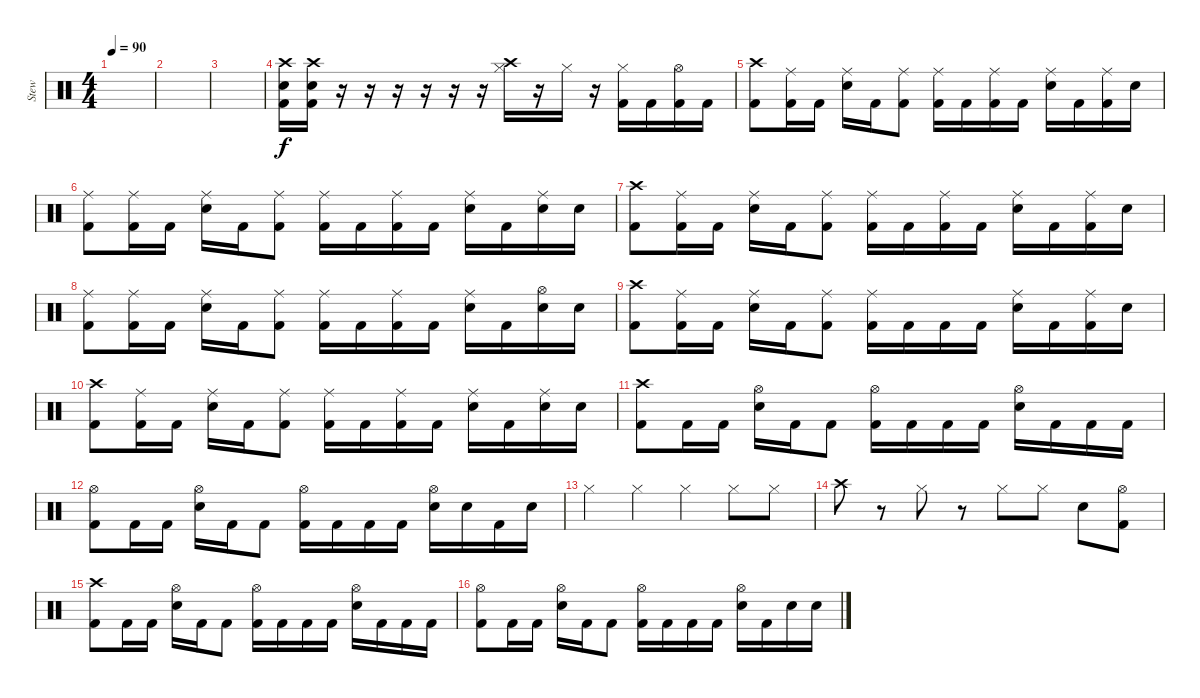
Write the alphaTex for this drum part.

\track ("Stew" "Stew") {instrument percussion}
\staff {score}
\articulation defaults
\ts (4 4)
\tempo 90
\clef neutral
\ks c
|
|
|
("Crash high (hit)"{x} "Snare (hit)"{x} "Kick (hit) 2"{x}).16 ("Crash high (hit)"{x} "Snare (hit)"{x} "Kick (hit) 2"{x}).16 r.16 r.16 r.16 r.16 r.16 r.16 ("Crash high (hit)" "Hi-Hat (closed)").16 r.16 "Hi-Hat (closed)".16 r.16 ("Hi-Hat (closed)" "Kick (hit) 2"{tr (36 32)}).16 "Kick (hit) 2".16 ("Hi-Hat (open)" "Kick (hit) 2").16 "Kick (hit) 2".16 |
("Crash high (hit)" "Kick (hit) 2").8 ("Ride (middle)" "Kick (hit) 2").16 "Kick (hit) 2".16 ("Ride (middle)" "Snare (hit) 2").16 "Kick (hit) 2".16 ("Ride (middle)" "Kick (hit) 2").8 ("Ride (middle)" "Kick (hit) 2"{x}).16 "Kick (hit) 2".16 ("Ride (middle)" "Kick (hit) 2").16 "Kick (hit) 2".16 ("Ride (middle)" "Snare (hit) 2").16 "Kick (hit) 2".16 ("Ride (middle)" "Kick (hit) 2").16 "Snare (hit) 2".16 |
("Ride (middle)" "Kick (hit) 2").8 ("Ride (middle)" "Kick (hit) 2").16 "Kick (hit) 2".16 ("Ride (middle)" "Snare (hit) 2").16 "Kick (hit) 2".16 ("Ride (middle)" "Kick (hit) 2").8 ("Ride (middle)" "Kick (hit) 2"{x}).16 "Kick (hit) 2".16 ("Ride (middle)" "Kick (hit) 2").16 "Kick (hit) 2".16 ("Ride (middle)" "Snare (hit) 2").16 "Kick (hit) 2".16 ("Ride (middle)" "Snare (hit) 2").16 "Snare (hit) 2".16 |
("Crash high (hit)" "Kick (hit) 2").8 ("Ride (middle)" "Kick (hit) 2").16 "Kick (hit) 2".16 ("Ride (middle)" "Snare (hit) 2").16 "Kick (hit) 2".16 ("Ride (middle)" "Kick (hit) 2").8 ("Ride (middle)" "Kick (hit) 2"{x}).16 "Kick (hit) 2".16 ("Ride (middle)" "Kick (hit) 2").16 "Kick (hit) 2".16 ("Ride (middle)" "Snare (hit) 2").16 "Kick (hit) 2".16 ("Ride (middle)" "Kick (hit) 2").16 "Snare (hit) 2".16 |
("Ride (middle)" "Kick (hit) 2").8 ("Ride (middle)" "Kick (hit) 2").16 "Kick (hit) 2".16 ("Ride (middle)" "Snare (hit) 2").16 "Kick (hit) 2".16 ("Ride (middle)" "Kick (hit) 2").8 ("Ride (middle)" "Kick (hit) 2"{x}).16 "Kick (hit) 2".16 ("Ride (middle)" "Kick (hit) 2").16 "Kick (hit) 2".16 ("Ride (middle)"{tr (51 16)} "Snare (hit) 2").16 "Kick (hit) 2".16 ("Hi-Hat (open)" "Snare (hit) 2").16 "Snare (hit) 2".16 |
("Crash high (hit)" "Kick (hit) 2").8 ("Ride (middle)" "Kick (hit) 2").16 "Kick (hit) 2".16 ("Ride (middle)" "Snare (hit) 2").16 "Kick (hit) 2".16 ("Ride (middle)" "Kick (hit) 2").8 ("Ride (middle)" "Kick (hit) 2"{x}).16 "Kick (hit) 2".16 "Kick (hit) 2".16 "Kick (hit) 2".16 ("Ride (middle)" "Snare (hit) 2").16 "Kick (hit) 2".16 ("Ride (middle)" "Kick (hit) 2").16 "Snare (hit) 2".16 |
("Crash high (hit)" "Kick (hit) 2").8 ("Ride (middle)" "Kick (hit) 2").16 "Kick (hit) 2".16 ("Ride (middle)" "Snare (hit) 2").16 "Kick (hit) 2".16 ("Ride (middle)" "Kick (hit) 2").8 ("Ride (middle)" "Kick (hit) 2"{x}).16 "Kick (hit) 2".16 ("Ride (middle)" "Kick (hit) 2").16 "Kick (hit) 2".16 ("Ride (middle)" "Snare (hit) 2").16 "Kick (hit) 2".16 ("Ride (middle)" "Snare (hit) 2").16 "Snare (hit) 2".16 |
("Crash high (hit)" "Kick (hit) 2").8 "Kick (hit) 2".16 "Kick (hit) 2".16 ("Hi-Hat (open)" "Snare (hit) 2").16 "Kick (hit) 2".16 "Kick (hit) 2".8 ("Hi-Hat (open)" "Kick (hit) 2"{x}).16 "Kick (hit) 2".16 "Kick (hit) 2".16 "Kick (hit) 2".16 ("Hi-Hat (open)" "Snare (hit) 2").16 "Kick (hit) 2".16 "Kick (hit) 2".16 "Kick (hit) 2".16 |
("Hi-Hat (open)" "Kick (hit) 2").8 "Kick (hit) 2".16 "Kick (hit) 2".16 ("Hi-Hat (open)" "Snare (hit) 2").16 "Kick (hit) 2".16 "Kick (hit) 2".8 ("Hi-Hat (open)" "Kick (hit) 2").16 "Kick (hit) 2".16 "Kick (hit) 2".16 "Kick (hit) 2".16 ("Hi-Hat (open)" "Snare (hit) 2").16 "Snare (hit) 2".16 "Kick (hit) 2".16 "Snare (hit) 2".16 |
"Hi-Hat (closed)".4 "Hi-Hat (closed)".4 "Hi-Hat (closed)".4 "Hi-Hat (closed)".8 "Hi-Hat (closed)".8 |
"Crash high (hit)".8 r.8 "Hi-Hat (closed)".8 r.8 "Hi-Hat (closed)".8 "Hi-Hat (closed)".8 "Snare (hit) 2".8 ("Hi-Hat (open)" "Kick (hit) 2").8 |
("Crash high (hit)" "Kick (hit) 2").8 "Kick (hit) 2".16 "Kick (hit) 2".16 ("Hi-Hat (open)" "Snare (hit) 2").16 "Kick (hit) 2".16 "Kick (hit) 2".8 ("Hi-Hat (open)" "Kick (hit) 2"{x}).16 "Kick (hit) 2".16 "Kick (hit) 2".16 "Kick (hit) 2".16 ("Hi-Hat (open)" "Snare (hit) 2").16 "Kick (hit) 2".16 "Kick (hit) 2".16 "Kick (hit) 2".16 |
("Hi-Hat (open)" "Kick (hit) 2").8 "Kick (hit) 2".16 "Kick (hit) 2".16 ("Hi-Hat (open)" "Snare (hit) 2").16 "Kick (hit) 2".16 "Kick (hit) 2".8 ("Hi-Hat (open)" "Kick (hit) 2"{x}).16 "Kick (hit) 2".16 "Kick (hit) 2".16 "Kick (hit) 2".16 ("Hi-Hat (open)" "Snare (hit) 2").16 "Kick (hit) 2".16 "Snare (hit) 2".16 "Snare (hit) 2".16
